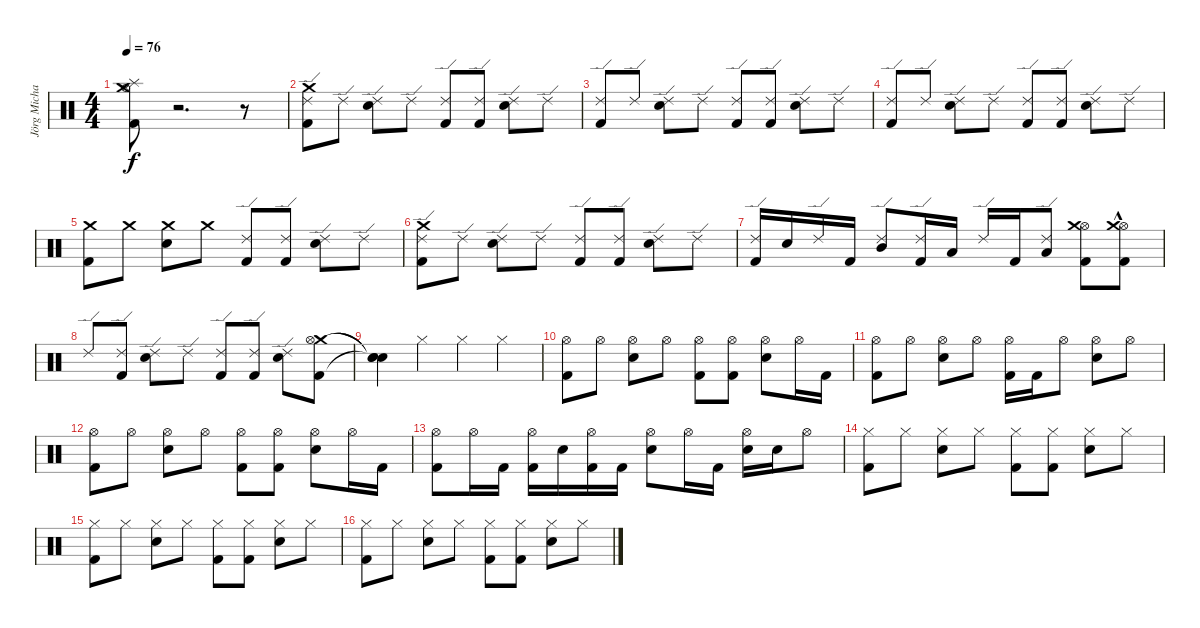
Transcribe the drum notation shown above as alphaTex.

\track ("Jörg Michael" "Jörg Micha") {instrument percussion}
\staff {score}
\articulation defaults
\ts (4 4)
\tempo 76
\clef neutral
\ks c
("Splash (hit)" "Crash medium (hit)" "Hi-Hat (open)" "Kick (hit) 2").8{dy f} r.2{d} r.8 |
("Ride (edge) 2" "Crash medium (hit)" "Kick (hit) 2").8 "Ride (edge) 2".8 ("Ride (edge) 2" "Electric Snare (hit)").8 "Ride (edge) 2".8 ("Ride (edge) 2" "Kick (hit) 2").8 ("Ride (edge) 2" "Kick (hit) 2").8 ("Ride (edge) 2" "Electric Snare (hit)").8 "Ride (edge) 2".8 |
("Ride (edge) 2" "Kick (hit) 2").8 "Ride (edge) 2".8 ("Ride (edge) 2" "Electric Snare (hit)").8 "Ride (edge) 2".8 ("Ride (edge) 2" "Kick (hit) 2").8 ("Ride (edge) 2" "Kick (hit) 2").8 ("Ride (edge) 2" "Electric Snare (hit)").8 "Ride (edge) 2".8 |
("Ride (edge) 2" "Kick (hit) 2").8 "Ride (edge) 2".8 ("Ride (edge) 2" "Electric Snare (hit)").8 "Ride (edge) 2".8 ("Ride (edge) 2" "Kick (hit) 2").8 ("Ride (edge) 2" "Kick (hit) 2").8 ("Ride (edge) 2" "Electric Snare (hit)").8 "Ride (edge) 2".8 |
("Crash medium (hit)" "Kick (hit) 2").8 "Crash medium (hit)".8 ("Crash medium (hit)" "Electric Snare (hit)").8 "Crash medium (hit)".8 ("Ride (edge) 2" "Kick (hit) 2").8 ("Ride (edge) 2" "Kick (hit) 2").8 ("Ride (edge) 2" "Electric Snare (hit)").8 "Ride (edge) 2".8 |
("Ride (edge) 2" "Crash medium (hit)" "Kick (hit) 2").8 "Ride (edge) 2".8 ("Ride (edge) 2" "Electric Snare (hit)").8 "Ride (edge) 2".8 ("Ride (edge) 2" "Kick (hit) 2").8 ("Ride (edge) 2" "Kick (hit) 2").8 ("Ride (edge) 2" "Electric Snare (hit)").8 "Ride (edge) 2".8 |
("Ride (edge) 2" "Kick (hit) 2").16 "Electric Snare (hit)".16 "Ride (edge) 2".16 "Kick (hit) 2".16 ("Ride (edge) 2" "Mid Tom (hit)").8 ("Ride (edge) 2" "Kick (hit) 2").16 "Low Tom (hit)".16 "Ride (edge) 2".16 "Kick (hit) 2".16 ("Ride (edge) 2" "Low Tom (hit)").8 ("Hi-Hat (open)" "Crash medium (hit)" "Kick (hit) 2").8 ("Hi-Hat (open)" "Crash medium (hit)"{hac} "Kick (hit) 2").8 |
"Ride (edge) 2".8 ("Ride (edge) 2" "Kick (hit) 2").8 ("Ride (edge) 2" "Electric Snare (hit)").8 "Ride (edge) 2".8 ("Ride (edge) 2" "Kick (hit) 2").8 ("Ride (edge) 2" "Kick (hit) 2").8 ("Ride (edge) 2" "Electric Snare (hit)").8 ("Crash medium (hit)" "Hi-Hat (open)" "Kick (hit) 2").8 |
("Snare (hit)"{t} "Snare (hit)"{t} "Snare (hit)"{t}).4 "Hi-Hat (closed)".4 "Hi-Hat (closed)".4 "Hi-Hat (closed)".4 |
("Hi-Hat (open)" "Kick (hit) 2").8 "Hi-Hat (open)".8 ("Hi-Hat (open)" "Electric Snare (hit)").8 "Hi-Hat (open)".8 ("Hi-Hat (open)" "Kick (hit) 2").8 ("Hi-Hat (open)" "Kick (hit) 2").8 ("Hi-Hat (open)" "Electric Snare (hit)").8 "Hi-Hat (open)".16 "Kick (hit) 2".16 |
("Hi-Hat (open)" "Kick (hit) 2").8 "Hi-Hat (open)".8 ("Hi-Hat (open)" "Electric Snare (hit)").8 "Hi-Hat (open)".8 ("Kick (hit) 2" "Hi-Hat (open)").16 "Kick (hit) 2".16 "Hi-Hat (open)".8 ("Hi-Hat (open)" "Electric Snare (hit)").8 "Hi-Hat (open)".8 |
("Hi-Hat (open)" "Kick (hit) 2").8 "Hi-Hat (open)".8 ("Hi-Hat (open)" "Electric Snare (hit)").8 "Hi-Hat (open)".8 ("Hi-Hat (open)" "Kick (hit) 2").8 ("Hi-Hat (open)" "Kick (hit) 2").8 ("Hi-Hat (open)" "Electric Snare (hit)").8 "Hi-Hat (open)".16 "Kick (hit) 2".16 |
("Hi-Hat (open)" "Kick (hit) 2").8 "Hi-Hat (open)".16 "Kick (hit) 2".16 ("Hi-Hat (open)" "Kick (hit) 2").16 "Electric Snare (hit)".16 ("Hi-Hat (open)" "Kick (hit) 2").16 "Kick (hit) 2".16 ("Hi-Hat (open)" "Electric Snare (hit)").8 "Hi-Hat (open)".16 "Kick (hit) 2".16 ("Hi-Hat (open)" "Electric Snare (hit)").16 "Electric Snare (hit)".16 "Hi-Hat (open)".8 |
("Hi-Hat (closed)" "Kick (hit) 2").8 "Hi-Hat (closed)".8 ("Hi-Hat (closed)" "Electric Snare (hit)").8 "Hi-Hat (closed)".8 ("Hi-Hat (closed)" "Kick (hit) 2").8 ("Hi-Hat (closed)" "Kick (hit) 2").8 ("Hi-Hat (closed)" "Electric Snare (hit)").8 "Hi-Hat (closed)".8 |
("Hi-Hat (closed)" "Kick (hit) 2").8 "Hi-Hat (closed)".8 ("Hi-Hat (closed)" "Electric Snare (hit)").8 "Hi-Hat (closed)".8 ("Hi-Hat (closed)" "Kick (hit) 2").8 ("Hi-Hat (closed)" "Kick (hit) 2").8 ("Hi-Hat (closed)" "Electric Snare (hit)").8 "Hi-Hat (closed)".8 |
("Hi-Hat (closed)" "Kick (hit) 2").8 "Hi-Hat (closed)".8 ("Hi-Hat (closed)" "Electric Snare (hit)").8 "Hi-Hat (closed)".8 ("Hi-Hat (closed)" "Kick (hit) 2").8 ("Hi-Hat (closed)" "Kick (hit) 2").8 ("Hi-Hat (closed)" "Electric Snare (hit)").8 "Hi-Hat (closed)".8
